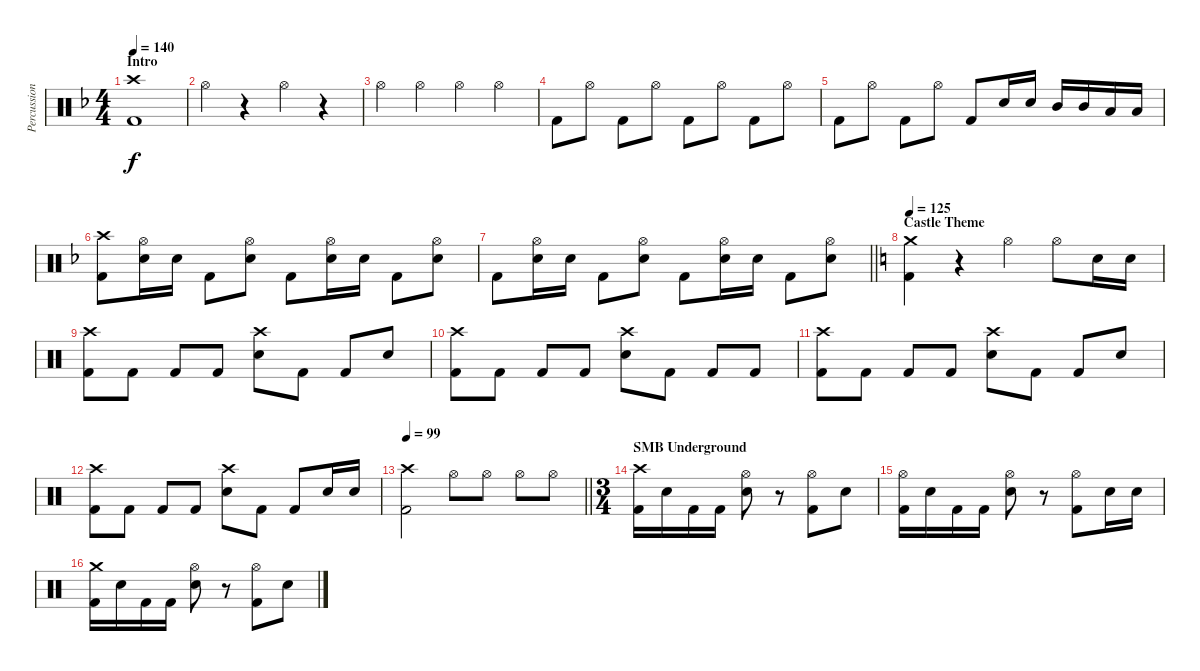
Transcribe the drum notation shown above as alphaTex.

\track ("Percussion" "Percussion") {instrument percussion}
\staff {score}
\articulation defaults
\ts (4 4)
\section ("" "Intro")
\tempo 140
\clef neutral
\ks f
("Crash high (hit)" "Kick (hit) 2").1{dy f} |
"Hi-Hat (open)".4 r.4 "Hi-Hat (open)".4 r.4 |
"Hi-Hat (open)".4 "Hi-Hat (open)".4 "Hi-Hat (open)".4 "Hi-Hat (open)".4 |
"Kick (hit) 2".8 "Hi-Hat (open)".8 "Kick (hit) 2".8 "Hi-Hat (open)".8 "Kick (hit) 2".8 "Hi-Hat (open)".8 "Kick (hit) 2".8 "Hi-Hat (open)".8 |
"Kick (hit) 2".8 "Hi-Hat (open)".8 "Kick (hit) 2".8 "Hi-Hat (open)".8 "Kick (hit) 2".8 "Electric Snare (hit)".16 "Electric Snare (hit)".16 "Mid Tom (hit)".16 "Mid Tom (hit)".16 "Low Tom (hit)".16 "Low Tom (hit)".16 |
("Crash high (hit)" "Kick (hit) 2").8 ("Hi-Hat (open)" "Electric Snare (hit)").16 "Electric Snare (hit)".16 "Kick (hit) 2".8 ("Hi-Hat (open)" "Electric Snare (hit)").8 "Kick (hit) 2".8 ("Hi-Hat (open)" "Electric Snare (hit)").16 "Electric Snare (hit)".16 "Kick (hit) 2".8 ("Hi-Hat (open)" "Electric Snare (hit)").8 |
\barLineRight lightlight "Kick (hit) 2".8
("Hi-Hat (open)" "Electric Snare (hit)").16 "Electric Snare (hit)".16 "Kick (hit) 2".8 ("Hi-Hat (open)" "Electric Snare (hit)").8 "Kick (hit) 2".8 ("Hi-Hat (open)" "Electric Snare (hit)").16 "Electric Snare (hit)".16 "Kick (hit) 2".8 ("Hi-Hat (open)" "Electric Snare (hit)").8 |
\section ("" "Castle Theme")
\tempo 125
\ks c
("Crash medium (hit)" "Kick (hit) 2").4 r.4 "Hi-Hat (open)".4 "Hi-Hat (open)".8 "Electric Snare (hit)".16 "Electric Snare (hit)".16 |
("Crash high (hit)" "Kick (hit) 2").8 "Kick (hit) 2".8 "Kick (hit) 2".8 "Kick (hit) 2".8 ("Crash high (hit)" "Electric Snare (hit)").8 "Kick (hit) 2".8 "Kick (hit) 2".8 "Electric Snare (hit)".8 |
("Crash high (hit)" "Kick (hit) 2").8 "Kick (hit) 2".8 "Kick (hit) 2".8 "Kick (hit) 2".8 ("Crash high (hit)" "Electric Snare (hit)").8 "Kick (hit) 2".8 "Kick (hit) 2".8 "Kick (hit) 2".8 |
("Crash high (hit)" "Kick (hit) 2").8 "Kick (hit) 2".8 "Kick (hit) 2".8 "Kick (hit) 2".8 ("Crash high (hit)" "Electric Snare (hit)").8 "Kick (hit) 2".8 "Kick (hit) 2".8 "Electric Snare (hit)".8 |
("Crash high (hit)" "Kick (hit) 2").8 "Kick (hit) 2".8 "Kick (hit) 2".8 "Kick (hit) 2".8 ("Crash high (hit)" "Electric Snare (hit)").8 "Kick (hit) 2".8 "Kick (hit) 2".8 "Electric Snare (hit)".16 "Electric Snare (hit)".16 |
\tempo 99
\barLineRight lightlight
("Crash high (hit)" "Kick (hit) 2").2 "Hi-Hat (open)".8 "Hi-Hat (open)".8 "Hi-Hat (open)".8 "Hi-Hat (open)".8 |
\ts (3 4)
\section ("" "SMB Underground")
("Crash high (hit)" "Kick (hit) 2").16 "Electric Snare (hit)".16 "Kick (hit) 2".16 "Kick (hit) 2".16 ("Hi-Hat (open)" "Electric Snare (hit)").8 r.8 ("Hi-Hat (open)" "Kick (hit) 2").8 "Electric Snare (hit)".8 |
("Hi-Hat (open)" "Kick (hit) 2").16 "Electric Snare (hit)".16 "Kick (hit) 2".16 "Kick (hit) 2".16 ("Hi-Hat (open)" "Electric Snare (hit)").8 r.8 ("Hi-Hat (open)" "Kick (hit) 2").8 "Electric Snare (hit)".16 "Electric Snare (hit)".16 |
("Crash medium (hit)" "Kick (hit) 2").16 "Electric Snare (hit)".16 "Kick (hit) 2".16 "Kick (hit) 2".16 ("Hi-Hat (open)" "Electric Snare (hit)").8 r.8 ("Hi-Hat (open)" "Kick (hit) 2").8 "Electric Snare (hit)".8
